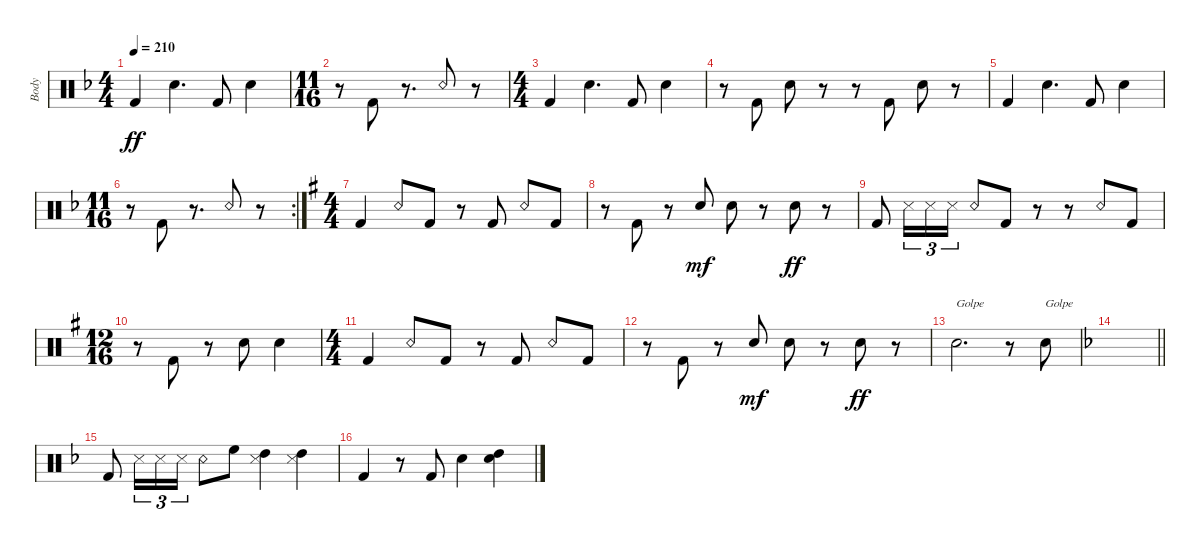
\defaultSystemsLayout 2
\bracketExtendMode groupsimilarinstruments
\otherSystemsTrackNameOrientation horizontal
\track ("Body" "Body") {instrument percussion}
\staff {score}
\articulation defaults
\ts (4 4)
\scale
1.01989
\tempo 210
\accidentals auto
\clef neutral
\ottava regular
\simile none
\scale
0.333333
\ks dminor "Kick (hit) 2"{acc forcenatural}.4{dy ff beam Up} "Snare (hit) 2"{acc forcenatural}.4{d beam Down} "Kick (hit) 2"{acc forcenatural}.8{beam Up} "Snare (hit) 2"{acc forcenatural}.4{beam Down}
|
\ts (11 16)
\scale
0.980114
\scale
0.333333 r.8{beam Down} "Kick (hit) 2"{acc forcenatural}.8{beam Up} r.8{d beam Up} "Snare (rim shot)"{acc forcenatural}.8{beam Down} r.8{beam Down} |
\ts (4 4)
\scale
1.06642
\scale
0.333333 "Kick (hit) 2"{acc forcenatural}.4{beam Up} "Snare (hit) 2"{acc forcenatural}.4{d beam Down} "Kick (hit) 2"{acc forcenatural}.8{beam Up} "Snare (hit) 2"{acc forcenatural}.4{beam Down} |
\scale
0.933576
\scale
0.333333 r.8{beam Down} "Kick (hit) 2"{acc forcenatural}.8{beam Up} "Snare (hit) 2"{acc forcenatural}.8{beam Down} r.8{beam Down} r.8{beam Down} "Kick (hit) 2"{acc forcenatural}.8{beam Up} "Snare (hit) 2"{acc forcenatural}.8{beam Down} r.8{beam Down} |
\scale
1.00769
\scale
0.333333 "Kick (hit) 2"{acc forcenatural}.4{beam Up} "Snare (hit) 2"{acc forcenatural}.4{d beam Down} "Kick (hit) 2"{acc forcenatural}.8{beam Up} "Snare (hit) 2"{acc forcenatural}.4{beam Down} |
\rc 2
\ts (11 16)
\scale
0.992313
\scale
0.333333 r.8{beam Down} "Kick (hit) 2"{acc forcenatural}.8{beam Up} r.8{d beam Up} "Snare (rim shot)"{acc forcenatural}.8{beam Down} r.8{beam Down} |
\ts (4 4)
\scale
1.06709
\scale
0.333333
\ks eminor "Kick (hit) 2"{acc forcenatural}.4{beam Up} "Snare (rim shot)"{acc forcenatural}.8{beam Up} "Kick (hit) 2"{acc forcenatural}.8{beam Up}
r.8{beam Up} "Kick (hit) 2"{acc forcenatural}.8{beam Up} "Snare (rim shot)"{acc forcenatural}.8{beam Up} "Kick (hit) 2"{acc forcenatural}.8{beam Up} |
\scale
0.932908
\scale
0.333333 r.8{beam Down} "Kick (hit) 2"{acc forcenatural}.8{beam Up} r.8{beam Up} "Snare (hit) 2"{acc forcenatural}.8{dy mf beam Down} "Snare (hit) 2"{acc forcenatural}.8{beam Down} r.8{beam Down} "Snare (hit) 2"{acc forcenatural}.8{dy ff beam Down} r.8{beam Down} |
\scale
1.01989
\scale
0.333333 "Kick (hit) 2"{acc forcenatural}.8{beam Up} "Snare (side stick) 3"{acc forcenatural}.16{tu (3 2) beam Down} "Snare (side stick) 3"{acc forcenatural}.16{tu (3 2) beam Down} "Snare (side stick) 3"{acc forcenatural}.16{tu (3 2) beam Down} "Snare (rim shot)"{acc forcenatural}.8{beam Up} "Kick (hit) 2"{acc forcenatural}.8{beam Up} r.8{beam Up} r.8{beam Up} "Snare (rim shot)"{acc forcenatural}.8{beam Up} "Kick (hit) 2"{acc forcenatural}.8{beam Up} |
\ts (12 16)
\scale
0.980115
\scale
0.333333 r.8{beam Down} "Kick (hit) 2"{acc forcenatural}.8{beam Up} r.8{beam Up} "Snare (hit) 2"{acc forcenatural}.8{beam Down} "Snare (hit) 2"{acc forcenatural}.4{beam Down} |
\ts (4 4)
\scale
1.06709
\scale
0.333333 "Kick (hit) 2"{acc forcenatural}.4{beam Up} "Snare (rim shot)"{acc forcenatural}.8{beam Up} "Kick (hit) 2"{acc forcenatural}.8{beam Up} r.8{beam Up} "Kick (hit) 2"{acc forcenatural}.8{beam Up} "Snare (rim shot)"{acc forcenatural}.8{beam Up} "Kick (hit) 2"{acc forcenatural}.8{beam Up} |
\scale
0.932908
\scale
0.333333 r.8{beam Down} "Kick (hit) 2"{acc forcenatural}.8{beam Up} r.8{beam Up} "Snare (hit) 2"{acc forcenatural}.8{dy mf beam Down} "Snare (hit) 2"{acc forcenatural}.8{beam Down} r.8{beam Down} "Snare (hit) 2"{acc forcenatural}.8{dy ff beam Down} r.8{beam Down} |
\scale
1.02674
\scale
0.333333 "Snare (hit) 2"{acc forcenatural}.2{d txt "Golpe" beam Down} r.8{beam Down} "Snare (hit) 2"{acc forcenatural}.8{txt "Golpe" beam Down} |
\scale
0.973263
\scale
0.333333
\barLineRight lightlight
\ks dminor
|
\scale
1.04787
\scale
0.333333 "Kick (hit) 2"{acc forcenatural}.8{beam Up} "Snare (side stick) 3"{acc forcenatural}.16{tu (3 2) beam Down} "Snare (side stick) 3"{acc forcenatural}.16{tu (3 2) beam Down} "Snare (side stick) 3"{acc forcenatural}.16{tu (3 2) beam Down} "Snare (rim shot)"{acc forcenatural}.8{beam Down} "High Floor Tom (hit)"{acc forcenatural}.8{beam Down} ("High Tom (hit)"{acc forcenatural} "Snare (side stick) 3"{acc forcenatural}).4{beam Down} ("High Tom (hit)"{acc forcenatural} "Snare (side stick) 3"{acc forcenatural}).4{beam Down} |
\scale
0.952125
\scale
0.333333 "Kick (hit) 2"{acc forcenatural}.4{beam Up} r.8{beam Up} "Kick (hit) 2"{acc forcenatural}.8{beam Up} "Snare (hit) 2"{acc forcenatural}.4{beam Down} ("High Tom (hit)"{acc forcenatural} "Snare (hit) 2"{acc forcenatural}).4{beam Down}
